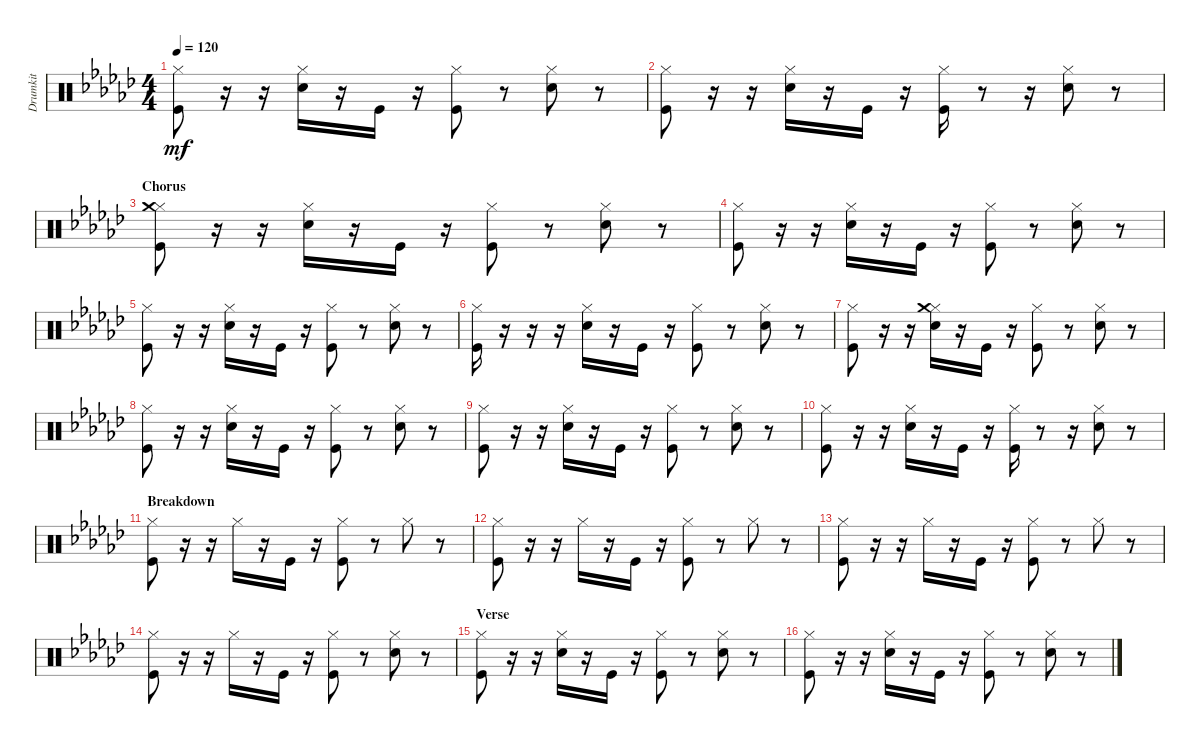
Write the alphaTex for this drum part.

\track ("Drumkit" "Drumkit") {instrument percussion}
\staff {score}
\articulation defaults
\ts (4 4)
\tempo 120
\clef neutral
\ks ebminor
("Kick (hit)" "Hi-Hat (closed)").8{dy mf} r.16 r.16 ("Snare (hit) 2" "Hi-Hat (closed)").16 r.16 "Kick (hit)".16 r.16 ("Kick (hit)" "Hi-Hat (closed)").8 r.8 ("Snare (hit) 2" "Hi-Hat (closed)").8 r.8 |
("Kick (hit)" "Hi-Hat (closed)").8 r.16 r.16 ("Snare (hit) 2" "Hi-Hat (closed)").16 r.16 "Kick (hit)".16 r.16 ("Kick (hit)" "Hi-Hat (closed)").16 r.8 r.16 ("Snare (hit) 2" "Hi-Hat (closed)").8 r.8 |
\section ("" "Chorus")
("Kick (hit)" "Hi-Hat (closed)" "Crash medium (hit)").8 r.16 r.16 ("Snare (hit) 2" "Hi-Hat (closed)").16 r.16 "Kick (hit)".16 r.16 ("Kick (hit)" "Hi-Hat (closed)").8 r.8 ("Snare (hit) 2" "Hi-Hat (closed)").8 r.8 |
("Kick (hit)" "Hi-Hat (closed)").8 r.16 r.16 ("Snare (hit) 2" "Hi-Hat (closed)").16 r.16 "Kick (hit)".16 r.16 ("Kick (hit)" "Hi-Hat (closed)").8 r.8 ("Snare (hit) 2" "Hi-Hat (closed)").8 r.8 |
("Kick (hit)" "Hi-Hat (closed)").8 r.16 r.16 ("Snare (hit) 2" "Hi-Hat (closed)").16 r.16 "Kick (hit)".16 r.16 ("Kick (hit)" "Hi-Hat (closed)").8 r.8 ("Snare (hit) 2" "Hi-Hat (closed)").8 r.8 |
("Kick (hit)" "Hi-Hat (closed)").16 r.16 r.16 r.16 ("Snare (hit) 2" "Hi-Hat (closed)").16 r.16 "Kick (hit)".16 r.16 ("Kick (hit)" "Hi-Hat (closed)").8 r.8 ("Snare (hit) 2" "Hi-Hat (closed)").8 r.8 |
("Kick (hit)" "Hi-Hat (closed)").8 r.16 r.16 ("Snare (hit) 2" "Hi-Hat (closed)" "Crash medium (hit)").16 r.16 "Kick (hit)".16 r.16 ("Kick (hit)" "Hi-Hat (closed)").8 r.8 ("Snare (hit) 2" "Hi-Hat (closed)").8 r.8 |
("Kick (hit)" "Hi-Hat (closed)").8 r.16 r.16 ("Snare (hit) 2" "Hi-Hat (closed)").16 r.16 "Kick (hit)".16 r.16 ("Kick (hit)" "Hi-Hat (closed)").8 r.8 ("Snare (hit) 2" "Hi-Hat (closed)").8 r.8 |
("Kick (hit)" "Hi-Hat (closed)").8 r.16 r.16 ("Snare (hit) 2" "Hi-Hat (closed)").16 r.16 "Kick (hit)".16 r.16 ("Kick (hit)" "Hi-Hat (closed)").8 r.8 ("Snare (hit) 2" "Hi-Hat (closed)").8 r.8 |
("Kick (hit)" "Hi-Hat (closed)").8 r.16 r.16 ("Snare (hit) 2" "Hi-Hat (closed)").16 r.16 "Kick (hit)".16 r.16 ("Kick (hit)" "Hi-Hat (closed)").16 r.8 r.16 ("Snare (hit) 2" "Hi-Hat (closed)").8 r.8 |
\section ("" "Breakdown")
("Kick (hit)" "Hi-Hat (closed)").8 r.16 r.16 "Hi-Hat (closed)".16 r.16 "Kick (hit)".16 r.16 ("Kick (hit)" "Hi-Hat (closed)").8 r.8 "Hi-Hat (closed)".8 r.8 |
("Kick (hit)" "Hi-Hat (closed)").8 r.16 r.16 "Hi-Hat (closed)".16 r.16 "Kick (hit)".16 r.16 ("Kick (hit)" "Hi-Hat (closed)").8 r.8 "Hi-Hat (closed)".8 r.8 |
("Kick (hit)" "Hi-Hat (closed)").8 r.16 r.16 "Hi-Hat (closed)".16 r.16 "Kick (hit)".16 r.16 ("Kick (hit)" "Hi-Hat (closed)").8 r.8 "Hi-Hat (closed)".8 r.8 |
("Kick (hit)" "Hi-Hat (closed)").8 r.16 r.16 "Hi-Hat (closed)".16 r.16 "Kick (hit)".16 r.16 ("Kick (hit)" "Hi-Hat (closed)").8 r.8 ("Snare (hit) 2" "Hi-Hat (closed)").8 r.8 |
\section ("" "Verse")
("Kick (hit)" "Hi-Hat (closed)").8 r.16 r.16 ("Snare (hit) 2" "Hi-Hat (closed)").16 r.16 "Kick (hit)".16 r.16 ("Kick (hit)" "Hi-Hat (closed)").8 r.8 ("Snare (hit) 2" "Hi-Hat (closed)").8 r.8 |
("Kick (hit)" "Hi-Hat (closed)").8 r.16 r.16 ("Snare (hit) 2" "Hi-Hat (closed)").16 r.16 "Kick (hit)".16 r.16 ("Kick (hit)" "Hi-Hat (closed)").8 r.8 ("Snare (hit) 2" "Hi-Hat (closed)").8 r.8
